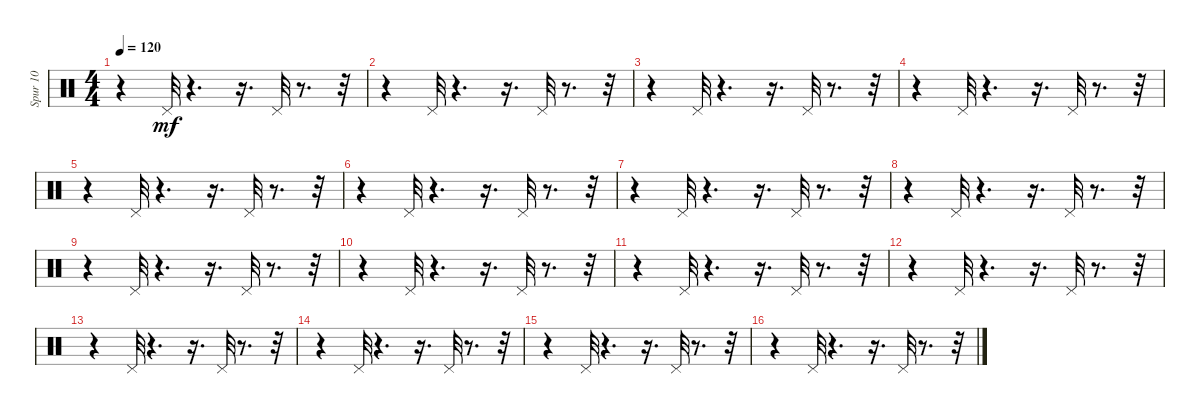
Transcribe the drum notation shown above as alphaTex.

\track ("Spur 10" "Spur 10") {instrument percussion}
\staff {score}
\articulation defaults
\ts (4 4)
\tempo 120
\clef neutral
\ks c
r.4{dy mf} "Pedal Hi-Hat (hit)".32 r.4{d} r.16{d} "Pedal Hi-Hat (hit)".32 r.8{d} r.32 |
r.4 "Pedal Hi-Hat (hit)".32 r.4{d} r.16{d} "Pedal Hi-Hat (hit)".32 r.8{d} r.32 |
r.4 "Pedal Hi-Hat (hit)".32 r.4{d} r.16{d} "Pedal Hi-Hat (hit)".32 r.8{d} r.32 |
r.4 "Pedal Hi-Hat (hit)".32 r.4{d} r.16{d} "Pedal Hi-Hat (hit)".32 r.8{d} r.32 |
r.4 "Pedal Hi-Hat (hit)".32 r.4{d} r.16{d} "Pedal Hi-Hat (hit)".32 r.8{d} r.32 |
r.4 "Pedal Hi-Hat (hit)".32 r.4{d} r.16{d} "Pedal Hi-Hat (hit)".32 r.8{d} r.32 |
r.4 "Pedal Hi-Hat (hit)".32 r.4{d} r.16{d} "Pedal Hi-Hat (hit)".32 r.8{d} r.32 |
r.4 "Pedal Hi-Hat (hit)".32 r.4{d} r.16{d} "Pedal Hi-Hat (hit)".32 r.8{d} r.32 |
r.4 "Pedal Hi-Hat (hit)".32 r.4{d} r.16{d} "Pedal Hi-Hat (hit)".32 r.8{d} r.32 |
r.4 "Pedal Hi-Hat (hit)".32 r.4{d} r.16{d} "Pedal Hi-Hat (hit)".32 r.8{d} r.32 |
r.4 "Pedal Hi-Hat (hit)".32 r.4{d} r.16{d} "Pedal Hi-Hat (hit)".32 r.8{d} r.32 |
r.4 "Pedal Hi-Hat (hit)".32 r.4{d} r.16{d} "Pedal Hi-Hat (hit)".32 r.8{d} r.32 |
r.4 "Pedal Hi-Hat (hit)".32 r.4{d} r.16{d} "Pedal Hi-Hat (hit)".32 r.8{d} r.32 |
r.4 "Pedal Hi-Hat (hit)".32 r.4{d} r.16{d} "Pedal Hi-Hat (hit)".32 r.8{d} r.32 |
r.4 "Pedal Hi-Hat (hit)".32 r.4{d} r.16{d} "Pedal Hi-Hat (hit)".32 r.8{d} r.32 |
r.4 "Pedal Hi-Hat (hit)".32 r.4{d} r.16{d} "Pedal Hi-Hat (hit)".32 r.8{d} r.32
